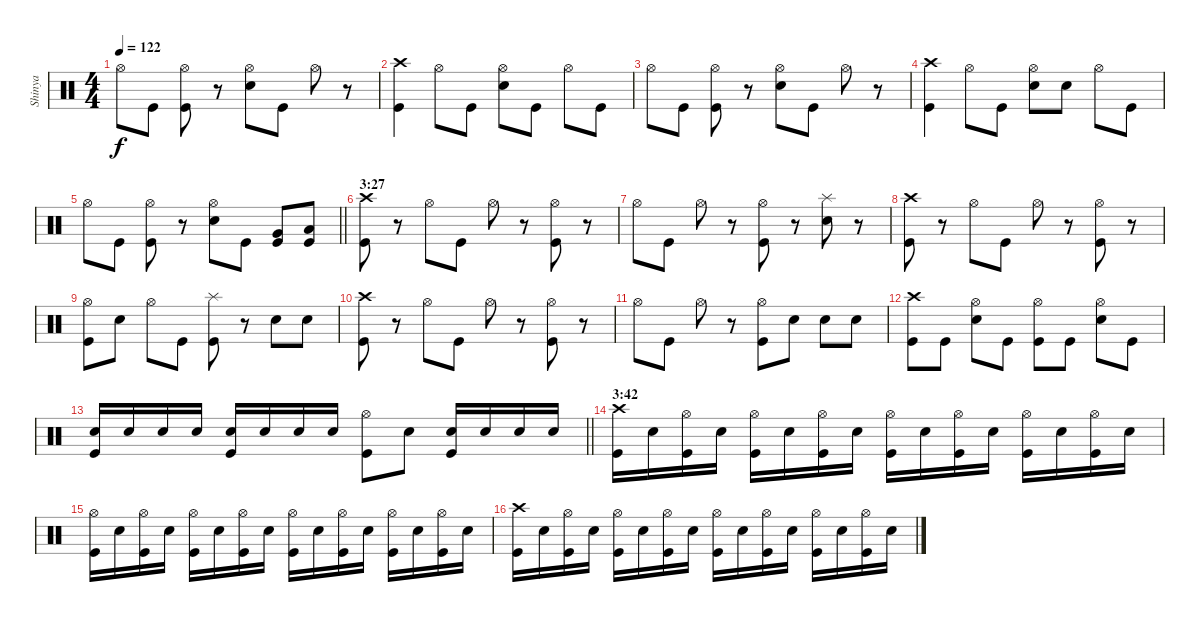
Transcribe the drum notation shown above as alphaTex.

\track ("Shinya" "Shinya") {instrument percussion}
\staff {score}
\articulation defaults
\ts (4 4)
\tempo 122
\clef neutral
\ks c "Hi-Hat (open)".8{dy f} "Kick (hit)".8
("Hi-Hat (open)" "Kick (hit)").8 r.8 ("Hi-Hat (open)" "Snare (hit) 2").8 "Kick (hit)".8 "Hi-Hat (open)".8 r.8 |
("Crash high (hit)" "Kick (hit)").4 "Hi-Hat (open)".8 "Kick (hit)".8 ("Hi-Hat (open)" "Snare (hit) 2").8 "Kick (hit)".8 "Hi-Hat (open)".8 "Kick (hit)".8 |
"Hi-Hat (open)".8 "Kick (hit)".8 ("Hi-Hat (open)" "Kick (hit)").8 r.8 ("Hi-Hat (open)" "Snare (hit) 2").8 "Kick (hit)".8 "Hi-Hat (open)".8 r.8 |
("Crash high (hit)" "Kick (hit)").4 "Hi-Hat (open)".8 "Kick (hit)".8 ("Hi-Hat (open)" "Snare (hit) 2").8 "Snare (hit) 2".8 "Hi-Hat (open)".8 "Kick (hit)".8 |
\barLineRight lightlight "Hi-Hat (open)".8 "Kick (hit)".8
("Hi-Hat (open)" "Kick (hit)").8 r.8 ("Hi-Hat (open)" "Snare (hit) 2").8 "Kick (hit)".8 ("Very Low Tom (hit)" "Kick (hit)").8 ("Low Floor Tom (hit)" "Kick (hit)").8 |
\section ("" "3:27")
("Crash high (hit)" "Kick (hit)").8 r.8 "Hi-Hat (open)".8 "Kick (hit)".8 "Hi-Hat (open)".8 r.8 ("Hi-Hat (open)" "Kick (hit)").8 r.8 |
"Hi-Hat (open)".8 "Kick (hit)".8 "Hi-Hat (open)".8 r.8 ("Hi-Hat (open)" "Kick (hit)").8 r.8 ("Splash (hit)" "Snare (hit) 2").8 r.8 |
("Crash high (hit)" "Kick (hit)").8 r.8 "Hi-Hat (open)".8 "Kick (hit)".8 "Hi-Hat (open)".8 r.8 ("Hi-Hat (open)" "Kick (hit)").8 r.8 |
("Hi-Hat (open)" "Kick (hit)").8 "Snare (hit) 2".8 "Hi-Hat (open)".8 "Kick (hit)".8 ("Splash (hit)" "Kick (hit)").8 r.8 "Snare (hit) 2".8 "Snare (hit) 2".8 |
("Crash high (hit)" "Kick (hit)").8 r.8 "Hi-Hat (open)".8 "Kick (hit)".8 "Hi-Hat (open)".8 r.8 ("Hi-Hat (open)" "Kick (hit)").8 r.8 |
"Hi-Hat (open)".8 "Kick (hit)".8 "Hi-Hat (open)".8 r.8 ("Hi-Hat (open)" "Kick (hit)").8 "Snare (hit) 2".8 "Snare (hit) 2".8 "Snare (hit) 2".8 |
("Crash high (hit)" "Kick (hit)").8 "Kick (hit)".8 ("Hi-Hat (open)" "Snare (hit) 2").8 "Kick (hit)".8 ("Hi-Hat (open)" "Kick (hit)").8 "Kick (hit)".8 ("Hi-Hat (open)" "Snare (hit) 2").8 "Kick (hit)".8 |
\barLineRight lightlight
("Snare (hit) 2" "Kick (hit)").16 "Snare (hit) 2".16 "Snare (hit) 2".16 "Snare (hit) 2".16 ("Snare (hit) 2" "Kick (hit)").16 "Snare (hit) 2".16 "Snare (hit) 2".16 "Snare (hit) 2".16 ("Hi-Hat (open)" "Kick (hit)").8 "Snare (hit) 2".8 ("Snare (hit) 2" "Kick (hit)").16 "Snare (hit) 2".16 "Snare (hit) 2".16 "Snare (hit) 2".16 |
\section ("" "3:42")
("Crash high (hit)" "Kick (hit)").16 "Snare (hit) 2".16 ("Hi-Hat (open)" "Kick (hit)").16 "Snare (hit) 2".16 ("Hi-Hat (open)" "Kick (hit)").16 "Snare (hit) 2".16 ("Hi-Hat (open)" "Kick (hit)").16 "Snare (hit) 2".16 ("Hi-Hat (open)" "Kick (hit)").16 "Snare (hit) 2".16 ("Hi-Hat (open)" "Kick (hit)").16 "Snare (hit) 2".16 ("Hi-Hat (open)" "Kick (hit)").16 "Snare (hit) 2".16 ("Hi-Hat (open)" "Kick (hit)").16 "Snare (hit) 2".16 |
("Hi-Hat (open)" "Kick (hit)").16 "Snare (hit) 2".16 ("Hi-Hat (open)" "Kick (hit)").16 "Snare (hit) 2".16 ("Hi-Hat (open)" "Kick (hit)").16 "Snare (hit) 2".16 ("Hi-Hat (open)" "Kick (hit)").16 "Snare (hit) 2".16 ("Hi-Hat (open)" "Kick (hit)").16 "Snare (hit) 2".16 ("Hi-Hat (open)" "Kick (hit)").16 "Snare (hit) 2".16 ("Hi-Hat (open)" "Kick (hit)").16 "Snare (hit) 2".16 ("Hi-Hat (open)" "Kick (hit)").16 "Snare (hit) 2".16 |
("Crash high (hit)" "Kick (hit)").16 "Snare (hit) 2".16 ("Hi-Hat (open)" "Kick (hit)").16 "Snare (hit) 2".16 ("Hi-Hat (open)" "Kick (hit)").16 "Snare (hit) 2".16 ("Hi-Hat (open)" "Kick (hit)").16 "Snare (hit) 2".16 ("Hi-Hat (open)" "Kick (hit)").16 "Snare (hit) 2".16 ("Hi-Hat (open)" "Kick (hit)").16 "Snare (hit) 2".16 ("Hi-Hat (open)" "Kick (hit)").16 "Snare (hit) 2".16 ("Hi-Hat (open)" "Kick (hit)").16 "Snare (hit) 2".16
